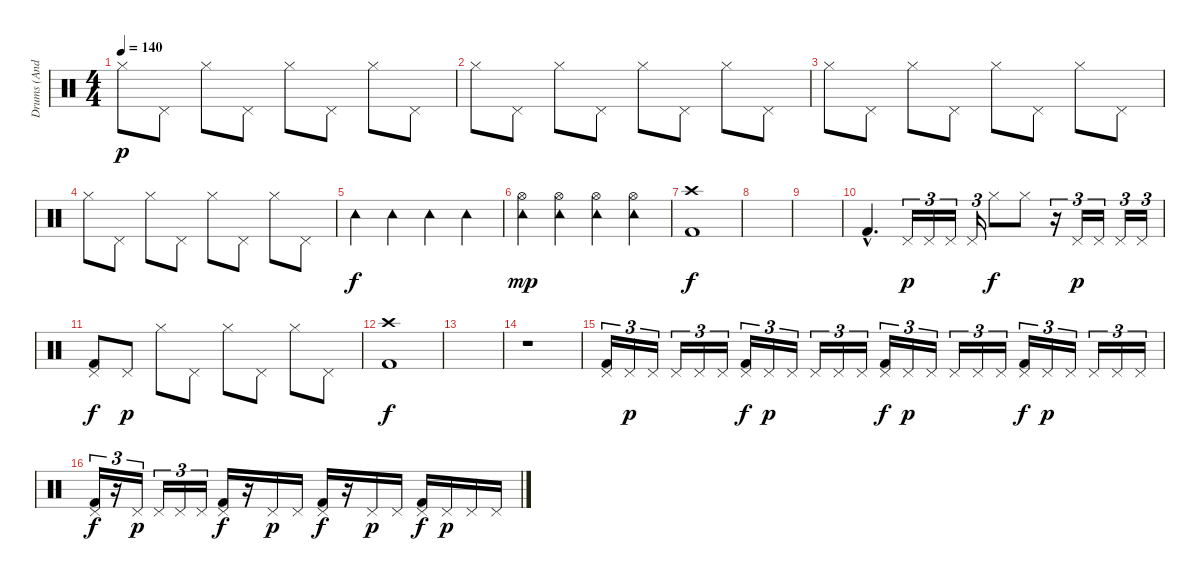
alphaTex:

\track ("Drums (Andy C)" "Drums (And") {instrument percussion}
\staff {score}
\articulation defaults
\ts (4 4)
\tempo 140
\clef neutral
\ks c "Hi-Hat (closed)".8{dy p} "Pedal Hi-Hat (hit)".8 "Hi-Hat (closed)".8 "Pedal Hi-Hat (hit)".8 "Hi-Hat (closed)".8 "Pedal Hi-Hat (hit)".8 "Hi-Hat (closed)".8 "Pedal Hi-Hat (hit)".8
|
"Hi-Hat (closed)".8 "Pedal Hi-Hat (hit)".8 "Hi-Hat (closed)".8 "Pedal Hi-Hat (hit)".8 "Hi-Hat (closed)".8 "Pedal Hi-Hat (hit)".8 "Hi-Hat (closed)".8 "Pedal Hi-Hat (hit)".8 |
"Hi-Hat (closed)".8 "Pedal Hi-Hat (hit)".8 "Hi-Hat (closed)".8 "Pedal Hi-Hat (hit)".8 "Hi-Hat (closed)".8 "Pedal Hi-Hat (hit)".8 "Hi-Hat (closed)".8 "Pedal Hi-Hat (hit)".8 |
"Hi-Hat (closed)".8 "Pedal Hi-Hat (hit)".8 "Hi-Hat (closed)".8 "Pedal Hi-Hat (hit)".8 "Hi-Hat (closed)".8 "Pedal Hi-Hat (hit)".8 "Hi-Hat (closed)".8 "Pedal Hi-Hat (hit)".8 |
"Tambourine (hit)".4{dy f} "Tambourine (hit)".4 "Tambourine (hit)".4 "Tambourine (hit)".4 |
("Hi-Hat (open)" "Tambourine (hit)").4{dy mp} ("Hi-Hat (open)" "Tambourine (hit)").4 ("Hi-Hat (open)" "Tambourine (hit)").4 ("Hi-Hat (open)" "Tambourine (hit)").4 |
("Crash high (hit)" "Kick (hit) 2").1{dy f} |
|
|
"Kick (hit) 2"{hac}.4{d} "Pedal Hi-Hat (hit)".16{tu (3 2) dy p} "Pedal Hi-Hat (hit)".16{tu (3 2)} "Pedal Hi-Hat (hit)".16{tu (3 2)} "Pedal Hi-Hat (hit)".16{tu (3 2)} "Hi-Hat (closed)".8{dy f} "Hi-Hat (closed)".8 r.16{tu (3 2)} "Pedal Hi-Hat (hit)".16{tu (3 2) dy p} "Pedal Hi-Hat (hit)".16{tu (3 2)} "Pedal Hi-Hat (hit)".16{tu (3 2)} "Pedal Hi-Hat (hit)".16{tu (3 2)} |
("Kick (hit) 2" "Pedal Hi-Hat (hit)").8{dy f} "Pedal Hi-Hat (hit)".8{dy p} "Hi-Hat (closed)".8 "Pedal Hi-Hat (hit)".8 "Hi-Hat (closed)".8 "Pedal Hi-Hat (hit)".8 "Hi-Hat (closed)".8 "Pedal Hi-Hat (hit)".8 |
("Crash high (hit)" "Kick (hit) 2").1{dy f} |
|
r.1 |
("Kick (hit) 2" "Pedal Hi-Hat (hit)").16{tu (3 2)} "Pedal Hi-Hat (hit)".16{tu (3 2) dy p} "Pedal Hi-Hat (hit)".16{tu (3 2)} "Pedal Hi-Hat (hit)".16{tu (3 2)} "Pedal Hi-Hat (hit)".16{tu (3 2)} "Pedal Hi-Hat (hit)".16{tu (3 2)} ("Kick (hit) 2" "Pedal Hi-Hat (hit)").16{tu (3 2) dy f} "Pedal Hi-Hat (hit)".16{tu (3 2) dy p} "Pedal Hi-Hat (hit)".16{tu (3 2)} "Pedal Hi-Hat (hit)".16{tu (3 2)} "Pedal Hi-Hat (hit)".16{tu (3 2)} "Pedal Hi-Hat (hit)".16{tu (3 2)} ("Kick (hit) 2" "Pedal Hi-Hat (hit)").16{tu (3 2) dy f} "Pedal Hi-Hat (hit)".16{tu (3 2) dy p} "Pedal Hi-Hat (hit)".16{tu (3 2)} "Pedal Hi-Hat (hit)".16{tu (3 2)} "Pedal Hi-Hat (hit)".16{tu (3 2)} "Pedal Hi-Hat (hit)".16{tu (3 2)} ("Kick (hit) 2" "Pedal Hi-Hat (hit)").16{tu (3 2) dy f} "Pedal Hi-Hat (hit)".16{tu (3 2) dy p} "Pedal Hi-Hat (hit)".16{tu (3 2)} "Pedal Hi-Hat (hit)".16{tu (3 2)} "Pedal Hi-Hat (hit)".16{tu (3 2)} "Pedal Hi-Hat (hit)".16{tu (3 2)} |
("Kick (hit) 2" "Pedal Hi-Hat (hit)").16{tu (3 2) dy f} r.16{tu (3 2)} "Pedal Hi-Hat (hit)".16{tu (3 2) dy p} "Pedal Hi-Hat (hit)".16{tu (3 2)} "Pedal Hi-Hat (hit)".16{tu (3 2)} "Pedal Hi-Hat (hit)".16{tu (3 2)} ("Pedal Hi-Hat (hit)" "Kick (hit) 2").16{dy f} r.16 "Pedal Hi-Hat (hit)".16{dy p} "Pedal Hi-Hat (hit)".16 ("Pedal Hi-Hat (hit)" "Kick (hit) 2").16{dy f} r.16 "Pedal Hi-Hat (hit)".16{dy p} "Pedal Hi-Hat (hit)".16 ("Pedal Hi-Hat (hit)" "Kick (hit) 2").16{dy f} "Pedal Hi-Hat (hit)".16{dy p} "Pedal Hi-Hat (hit)".16 "Pedal Hi-Hat (hit)".16
